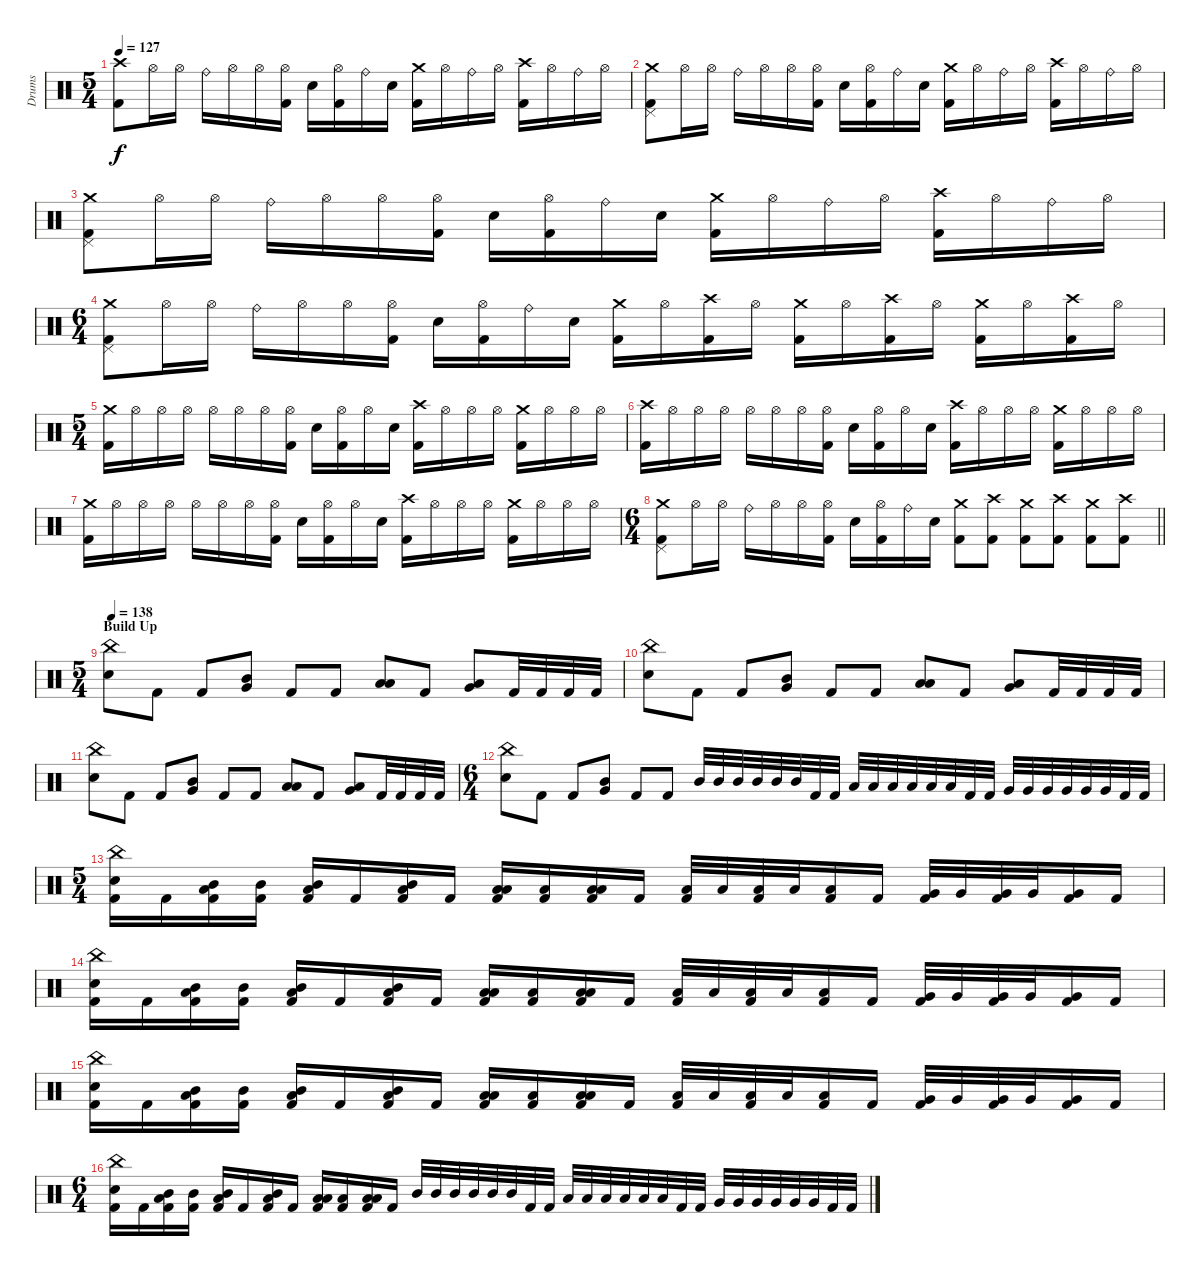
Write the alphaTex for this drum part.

\track ("Drums" "Drums") {instrument percussion}
\staff {score}
\articulation defaults
\ts (5 4)
\tempo 127
\clef neutral
\ks c
("Crash high (hit)" "Kick (hit) 2").8{dy f} "Hi-Hat (open)".16 "Hi-Hat (open)".16 "Ride (bell)".16 "Hi-Hat (open)".16 "Hi-Hat (open)".16 ("Hi-Hat (open)" "Kick (hit) 2").16 "Electric Snare (hit)".16 ("Hi-Hat (open)" "Kick (hit) 2").16 "Ride (bell)".16 "Electric Snare (hit)".16 ("Crash medium (hit)" "Kick (hit) 2").16 "Hi-Hat (open)".16 "Ride (bell)".16 "Hi-Hat (open)".16 ("Crash high (hit)" "Kick (hit) 2").16 "Hi-Hat (open)".16 "Ride (bell)".16 "Hi-Hat (open)".16 |
("Crash medium (hit)" "Pedal Hi-Hat (hit)" "Kick (hit) 2").8 "Hi-Hat (open)".16 "Hi-Hat (open)".16 "Ride (bell)".16 "Hi-Hat (open)".16 "Hi-Hat (open)".16 ("Hi-Hat (open)" "Kick (hit) 2").16 "Electric Snare (hit)".16 ("Hi-Hat (open)" "Kick (hit) 2").16 "Ride (bell)".16 "Electric Snare (hit)".16 ("Crash medium (hit)" "Kick (hit) 2").16 "Hi-Hat (open)".16 "Ride (bell)".16 "Hi-Hat (open)".16 ("Crash high (hit)" "Kick (hit) 2").16 "Hi-Hat (open)".16 "Ride (bell)".16 "Hi-Hat (open)".16 |
("Crash medium (hit)" "Pedal Hi-Hat (hit)" "Kick (hit) 2").8 "Hi-Hat (open)".16 "Hi-Hat (open)".16 "Ride (bell)".16 "Hi-Hat (open)".16 "Hi-Hat (open)".16 ("Hi-Hat (open)" "Kick (hit) 2").16 "Electric Snare (hit)".16 ("Hi-Hat (open)" "Kick (hit) 2").16 "Ride (bell)".16 "Electric Snare (hit)".16 ("Crash medium (hit)" "Kick (hit) 2").16 "Hi-Hat (open)".16 "Ride (bell)".16 "Hi-Hat (open)".16 ("Crash high (hit)" "Kick (hit) 2").16 "Hi-Hat (open)".16 "Ride (bell)".16 "Hi-Hat (open)".16 |
\ts (6 4)
("Crash medium (hit)" "Pedal Hi-Hat (hit)" "Kick (hit) 2").8 "Hi-Hat (open)".16 "Hi-Hat (open)".16 "Ride (bell)".16 "Hi-Hat (open)".16 "Hi-Hat (open)".16 ("Hi-Hat (open)" "Kick (hit) 2").16 "Electric Snare (hit)".16 ("Hi-Hat (open)" "Kick (hit) 2").16 "Ride (bell)".16 "Electric Snare (hit)".16 ("Crash medium (hit)" "Kick (hit) 2").16 "Hi-Hat (open)".16 ("Crash high (hit)" "Kick (hit) 2").16 "Hi-Hat (open)".16 ("Crash medium (hit)" "Kick (hit) 2").16 "Hi-Hat (open)".16 ("Crash high (hit)" "Kick (hit) 2").16 "Hi-Hat (open)".16 ("Crash medium (hit)" "Kick (hit) 2").16 "Hi-Hat (open)".16 ("Crash high (hit)" "Kick (hit) 2").16 "Hi-Hat (open)".16 |
\ts (5 4)
("Crash medium (hit)" "Kick (hit) 2").16 "Hi-Hat (open)".16 "Hi-Hat (open)".16 "Hi-Hat (open)".16 "Hi-Hat (open)".16 "Hi-Hat (open)".16 "Hi-Hat (open)".16 ("Hi-Hat (open)" "Kick (hit) 2").16 "Electric Snare (hit)".16 ("Hi-Hat (open)" "Kick (hit) 2").16 "Hi-Hat (open)".16 "Electric Snare (hit)".16 ("Crash high (hit)" "Kick (hit) 2").16 "Hi-Hat (open)".16 "Hi-Hat (open)".16 "Hi-Hat (open)".16 ("Crash medium (hit)" "Kick (hit) 2").16 "Hi-Hat (open)".16 "Hi-Hat (open)".16 "Hi-Hat (open)".16 |
("Crash high (hit)" "Kick (hit) 2").16 "Hi-Hat (open)".16 "Hi-Hat (open)".16 "Hi-Hat (open)".16 "Hi-Hat (open)".16 "Hi-Hat (open)".16 "Hi-Hat (open)".16 ("Hi-Hat (open)" "Kick (hit) 2").16 "Electric Snare (hit)".16 ("Hi-Hat (open)" "Kick (hit) 2").16 "Hi-Hat (open)".16 "Electric Snare (hit)".16 ("Crash high (hit)" "Kick (hit) 2").16 "Hi-Hat (open)".16 "Hi-Hat (open)".16 "Hi-Hat (open)".16 ("Crash medium (hit)" "Kick (hit) 2").16 "Hi-Hat (open)".16 "Hi-Hat (open)".16 "Hi-Hat (open)".16 |
("Crash medium (hit)" "Kick (hit) 2").16 "Hi-Hat (open)".16 "Hi-Hat (open)".16 "Hi-Hat (open)".16 "Hi-Hat (open)".16 "Hi-Hat (open)".16 "Hi-Hat (open)".16 ("Hi-Hat (open)" "Kick (hit) 2").16 "Electric Snare (hit)".16 ("Hi-Hat (open)" "Kick (hit) 2").16 "Hi-Hat (open)".16 "Electric Snare (hit)".16 ("Crash high (hit)" "Kick (hit) 2").16 "Hi-Hat (open)".16 "Hi-Hat (open)".16 "Hi-Hat (open)".16 ("Crash medium (hit)" "Kick (hit) 2").16 "Hi-Hat (open)".16 "Hi-Hat (open)".16 "Hi-Hat (open)".16 |
\ts (6 4)
\barLineRight lightlight
("Crash medium (hit)" "Pedal Hi-Hat (hit)" "Kick (hit) 2").8 "Hi-Hat (open)".16 "Hi-Hat (open)".16 "Ride (bell)".16 "Hi-Hat (open)".16 "Hi-Hat (open)".16 ("Hi-Hat (open)" "Kick (hit) 2").16 "Electric Snare (hit)".16 ("Hi-Hat (open)" "Kick (hit) 2").16 "Ride (bell)".16 "Electric Snare (hit)".16 ("Crash medium (hit)" "Kick (hit) 2").8 ("Crash high (hit)" "Kick (hit) 2").8 ("Crash medium (hit)" "Kick (hit) 2").8 ("Crash high (hit)" "Kick (hit) 2").8 ("Crash medium (hit)" "Kick (hit) 2").8 ("Crash high (hit)" "Kick (hit) 2").8 |
\ts (5 4)
\section ("" "Build Up")
\tempo 138
("China (hit)" "Electric Snare (hit)").8 "Kick (hit) 2".8 "Kick (hit) 2".8 ("Mid Tom (hit)" "Very Low Tom (hit)").8 "Kick (hit) 2".8 "Kick (hit) 2".8 ("Low Tom (hit)" "Low Floor Tom (hit)").8 "Kick (hit) 2".8 ("Very Low Tom (hit)" "Low Floor Tom (hit)").8 "Kick (hit) 2".32 "Kick (hit) 2".32 "Kick (hit) 2".32 "Kick (hit) 2".32 |
("China (hit)" "Electric Snare (hit)").8 "Kick (hit) 2".8 "Kick (hit) 2".8 ("Mid Tom (hit)" "Very Low Tom (hit)").8 "Kick (hit) 2".8 "Kick (hit) 2".8 ("Low Tom (hit)" "Low Floor Tom (hit)").8 "Kick (hit) 2".8 ("Very Low Tom (hit)" "Low Floor Tom (hit)").8 "Kick (hit) 2".32 "Kick (hit) 2".32 "Kick (hit) 2".32 "Kick (hit) 2".32 |
("China (hit)" "Electric Snare (hit)").8 "Kick (hit) 2".8 "Kick (hit) 2".8 ("Mid Tom (hit)" "Very Low Tom (hit)").8 "Kick (hit) 2".8 "Kick (hit) 2".8 ("Low Tom (hit)" "Low Floor Tom (hit)").8 "Kick (hit) 2".8 ("Very Low Tom (hit)" "Low Floor Tom (hit)").8 "Kick (hit) 2".32 "Kick (hit) 2".32 "Kick (hit) 2".32 "Kick (hit) 2".32 |
\ts (6 4)
("China (hit)" "Electric Snare (hit)").8 "Kick (hit) 2".8 "Kick (hit) 2".8 ("Mid Tom (hit)" "Very Low Tom (hit)").8 "Kick (hit) 2".8 "Kick (hit) 2".8 "Mid Tom (hit)".32 "Mid Tom (hit)".32 "Mid Tom (hit)".32 "Mid Tom (hit)".32 "Mid Tom (hit)".32 "Mid Tom (hit)".32 "Kick (hit) 2".32 "Kick (hit) 2".32 "Low Tom (hit)".32 "Low Tom (hit)".32 "Low Tom (hit)".32 "Low Tom (hit)".32 "Low Tom (hit)".32 "Low Tom (hit)".32 "Kick (hit) 2".32 "Kick (hit) 2".32 "Very Low Tom (hit)".32 "Very Low Tom (hit)".32 "Very Low Tom (hit)".32 "Very Low Tom (hit)".32 "Very Low Tom (hit)".32 "Very Low Tom (hit)".32 "Kick (hit) 2".32 "Kick (hit) 2".32 |
\ts (5 4)
("China (hit)" "Electric Snare (hit)" "Kick (hit) 2").16 "Kick (hit) 2".16 ("Mid Tom (hit)" "Low Floor Tom (hit)" "Kick (hit) 2").16 ("Mid Tom (hit)" "Kick (hit) 2").16 ("Mid Tom (hit)" "Low Floor Tom (hit)" "Kick (hit) 2").16 "Kick (hit) 2".16 ("Mid Tom (hit)" "Low Floor Tom (hit)" "Kick (hit) 2").16 "Kick (hit) 2".16 ("Low Tom (hit)" "Low Floor Tom (hit)" "Kick (hit) 2").16 ("Low Tom (hit)" "Kick (hit) 2").16 ("Low Tom (hit)" "Low Floor Tom (hit)" "Kick (hit) 2").16 "Kick (hit) 2".16 ("Low Tom (hit)" "Kick (hit) 2").32 "Low Tom (hit)".32 ("Low Tom (hit)" "Kick (hit) 2").32 "Low Tom (hit)".32 ("Low Tom (hit)" "Kick (hit) 2").16 "Kick (hit) 2".16 ("Very Low Tom (hit)" "Kick (hit) 2").32 "Very Low Tom (hit)".32 ("Very Low Tom (hit)" "Kick (hit) 2").32 "Very Low Tom (hit)".32 ("Very Low Tom (hit)" "Kick (hit) 2").16 "Kick (hit) 2".16 |
("China (hit)" "Electric Snare (hit)" "Kick (hit) 2").16 "Kick (hit) 2".16 ("Mid Tom (hit)" "Low Floor Tom (hit)" "Kick (hit) 2").16 ("Mid Tom (hit)" "Kick (hit) 2").16 ("Mid Tom (hit)" "Low Floor Tom (hit)" "Kick (hit) 2").16 "Kick (hit) 2".16 ("Mid Tom (hit)" "Low Floor Tom (hit)" "Kick (hit) 2").16 "Kick (hit) 2".16 ("Low Tom (hit)" "Low Floor Tom (hit)" "Kick (hit) 2").16 ("Low Tom (hit)" "Kick (hit) 2").16 ("Low Tom (hit)" "Low Floor Tom (hit)" "Kick (hit) 2").16 "Kick (hit) 2".16 ("Low Tom (hit)" "Kick (hit) 2").32 "Low Tom (hit)".32 ("Low Tom (hit)" "Kick (hit) 2").32 "Low Tom (hit)".32 ("Low Tom (hit)" "Kick (hit) 2").16 "Kick (hit) 2".16 ("Very Low Tom (hit)" "Kick (hit) 2").32 "Very Low Tom (hit)".32 ("Very Low Tom (hit)" "Kick (hit) 2").32 "Very Low Tom (hit)".32 ("Very Low Tom (hit)" "Kick (hit) 2").16 "Kick (hit) 2".16 |
("China (hit)" "Electric Snare (hit)" "Kick (hit) 2").16 "Kick (hit) 2".16 ("Mid Tom (hit)" "Low Floor Tom (hit)" "Kick (hit) 2").16 ("Mid Tom (hit)" "Kick (hit) 2").16 ("Mid Tom (hit)" "Low Floor Tom (hit)" "Kick (hit) 2").16 "Kick (hit) 2".16 ("Mid Tom (hit)" "Low Floor Tom (hit)" "Kick (hit) 2").16 "Kick (hit) 2".16 ("Low Tom (hit)" "Low Floor Tom (hit)" "Kick (hit) 2").16 ("Low Tom (hit)" "Kick (hit) 2").16 ("Low Tom (hit)" "Low Floor Tom (hit)" "Kick (hit) 2").16 "Kick (hit) 2".16 ("Low Tom (hit)" "Kick (hit) 2").32 "Low Tom (hit)".32 ("Low Tom (hit)" "Kick (hit) 2").32 "Low Tom (hit)".32 ("Low Tom (hit)" "Kick (hit) 2").16 "Kick (hit) 2".16 ("Very Low Tom (hit)" "Kick (hit) 2").32 "Very Low Tom (hit)".32 ("Very Low Tom (hit)" "Kick (hit) 2").32 "Very Low Tom (hit)".32 ("Very Low Tom (hit)" "Kick (hit) 2").16 "Kick (hit) 2".16 |
\ts (6 4)
("China (hit)" "Electric Snare (hit)" "Kick (hit) 2").16 "Kick (hit) 2".16 ("Mid Tom (hit)" "Low Floor Tom (hit)" "Kick (hit) 2").16 ("Mid Tom (hit)" "Kick (hit) 2").16 ("Mid Tom (hit)" "Low Floor Tom (hit)" "Kick (hit) 2").16 "Kick (hit) 2".16 ("Mid Tom (hit)" "Low Floor Tom (hit)" "Kick (hit) 2").16 "Kick (hit) 2".16 ("Low Tom (hit)" "Low Floor Tom (hit)" "Kick (hit) 2").16 ("Low Tom (hit)" "Kick (hit) 2").16 ("Low Tom (hit)" "Low Floor Tom (hit)" "Kick (hit) 2").16 "Kick (hit) 2".16 "Mid Tom (hit)".32 "Mid Tom (hit)".32 "Mid Tom (hit)".32 "Mid Tom (hit)".32 "Mid Tom (hit)".32 "Mid Tom (hit)".32 "Kick (hit) 2".32 "Kick (hit) 2".32 "Low Tom (hit)".32 "Low Tom (hit)".32 "Low Tom (hit)".32 "Low Tom (hit)".32 "Low Tom (hit)".32 "Low Tom (hit)".32 "Kick (hit) 2".32 "Kick (hit) 2".32 "Very Low Tom (hit)".32 "Very Low Tom (hit)".32 "Very Low Tom (hit)".32 "Very Low Tom (hit)".32 "Very Low Tom (hit)".32 "Very Low Tom (hit)".32 "Kick (hit) 2".32 "Kick (hit) 2".32
